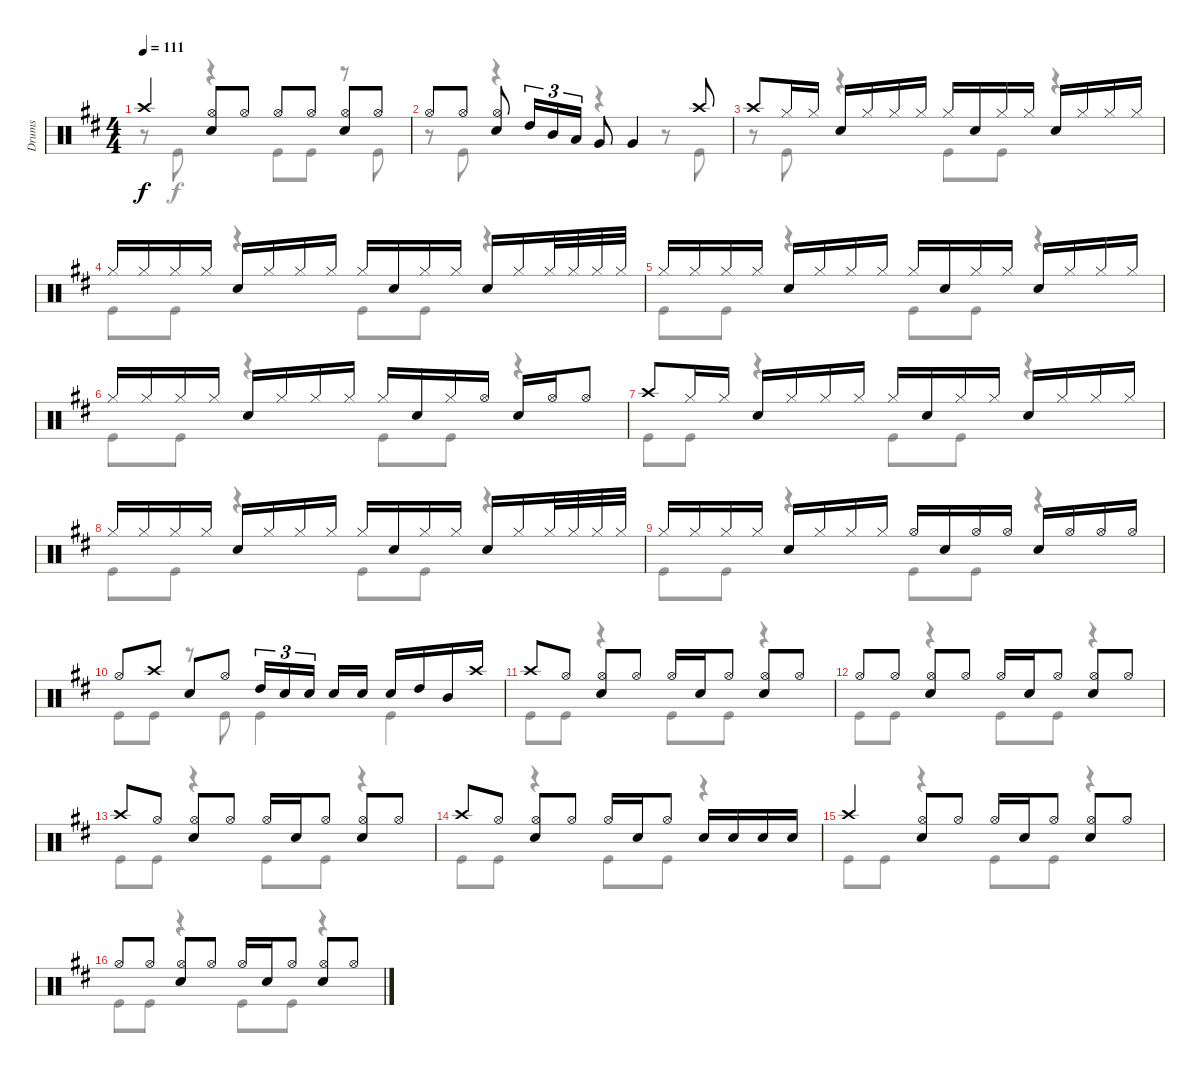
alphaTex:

\track ("Drums" "Drums") {instrument percussion}
\staff {score}
\articulation defaults
\voice
\ts (4 4)
\tempo 111
\clef neutral
\ks d "Crash high (hit)"{t}.4{dy f beam Up}
("Snare (hit) 2" "Hi-Hat (open)").8{beam Up} "Hi-Hat (open)".8{beam Up} "Hi-Hat (open)".8{beam Up} "Hi-Hat (open)".8{beam Up} ("Snare (hit) 2" "Hi-Hat (open)").8{beam Up} "Hi-Hat (open)".8{beam Up} |
"Hi-Hat (open)".8{beam Up} "Hi-Hat (open)".8{beam Up} ("Hi-Hat (open)" "Snare (hit) 2").8{beam Up} "High Tom (hit)".16{tu (3 2) beam Up} "Mid Tom (hit)".16{tu (3 2) beam Up} "Low Tom (hit)".16{tu (3 2) beam Up} "Very Low Tom (hit)".8{beam Up} "Very Low Tom (hit)".4{beam Up} "Crash high (hit)".8{beam Up} |
"Crash high (hit)".8{beam Up} "Hi-Hat (closed)".16{beam Up} "Hi-Hat (closed)".16{beam Up} "Snare (hit) 2".16{beam Up} "Hi-Hat (closed)".16{beam Up} "Hi-Hat (closed)".16{beam Up} "Hi-Hat (closed)".16{beam Up} "Hi-Hat (closed)".16{beam Up} "Snare (hit) 2".16{beam Up} "Hi-Hat (closed)".16{beam Up} "Hi-Hat (closed)".16{beam Up} "Snare (hit) 2".16{beam Up} "Hi-Hat (closed)".16{beam Up} "Hi-Hat (closed)".16{beam Up} "Hi-Hat (closed)".16{beam Up} |
"Hi-Hat (closed)".16{beam Up} "Hi-Hat (closed)".16{beam Up} "Hi-Hat (closed)".16{beam Up} "Hi-Hat (closed)".16{beam Up} "Snare (hit) 2".16{beam Up} "Hi-Hat (closed)".16{beam Up} "Hi-Hat (closed)".16{beam Up} "Hi-Hat (closed)".16{beam Up} "Hi-Hat (closed)".16{beam Up} "Snare (hit) 2".16{beam Up} "Hi-Hat (closed)".16{beam Up} "Hi-Hat (closed)".16{beam Up} "Snare (hit) 2".16{beam Up} "Hi-Hat (closed)".16{beam Up} "Hi-Hat (closed)".32{beam Up} "Hi-Hat (closed)".32{beam Up} "Hi-Hat (closed)".32{beam Up} "Hi-Hat (closed)".32{beam Up} |
"Hi-Hat (closed)".16{beam Up} "Hi-Hat (closed)".16{beam Up} "Hi-Hat (closed)".16{beam Up} "Hi-Hat (closed)".16{beam Up} "Snare (hit) 2".16{beam Up} "Hi-Hat (closed)".16{beam Up} "Hi-Hat (closed)".16{beam Up} "Hi-Hat (closed)".16{beam Up} "Hi-Hat (closed)".16{beam Up} "Snare (hit) 2".16{beam Up} "Hi-Hat (closed)".16{beam Up} "Hi-Hat (closed)".16{beam Up} "Snare (hit) 2".16{beam Up} "Hi-Hat (closed)".16{beam Up} "Hi-Hat (closed)".16{beam Up} "Hi-Hat (closed)".16{beam Up} |
"Hi-Hat (closed)".16{beam Up} "Hi-Hat (closed)".16{beam Up} "Hi-Hat (closed)".16{beam Up} "Hi-Hat (closed)".16{beam Up} "Snare (hit) 2".16{beam Up} "Hi-Hat (closed)".16{beam Up} "Hi-Hat (closed)".16{beam Up} "Hi-Hat (closed)".16{beam Up} "Hi-Hat (closed)".16{beam Up} "Snare (hit) 2".16{beam Up} "Hi-Hat (closed)".16{beam Up} "Hi-Hat (open)".16{beam Up} "Snare (hit) 2".16{beam Up} "Hi-Hat (open)".16{beam Up} "Hi-Hat (open)".8{beam Up} |
"Crash high (hit)".8{beam Up} "Hi-Hat (closed)".16{beam Up} "Hi-Hat (closed)".16{beam Up} "Snare (hit) 2".16{beam Up} "Hi-Hat (closed)".16{beam Up} "Hi-Hat (closed)".16{beam Up} "Hi-Hat (closed)".16{beam Up} "Hi-Hat (closed)".16{beam Up} "Snare (hit) 2".16{beam Up} "Hi-Hat (closed)".16{beam Up} "Hi-Hat (closed)".16{beam Up} "Snare (hit) 2".16{beam Up} "Hi-Hat (closed)".16{beam Up} "Hi-Hat (closed)".16{beam Up} "Hi-Hat (closed)".16{beam Up} |
"Hi-Hat (closed)".16{beam Up} "Hi-Hat (closed)".16{beam Up} "Hi-Hat (closed)".16{beam Up} "Hi-Hat (closed)".16{beam Up} "Snare (hit) 2".16{beam Up} "Hi-Hat (closed)".16{beam Up} "Hi-Hat (closed)".16{beam Up} "Hi-Hat (closed)".16{beam Up} "Hi-Hat (closed)".16{beam Up} "Snare (hit) 2".16{beam Up} "Hi-Hat (closed)".16{beam Up} "Hi-Hat (closed)".16{beam Up} "Snare (hit) 2".16{beam Up} "Hi-Hat (closed)".16{beam Up} "Hi-Hat (closed)".32{beam Up} "Hi-Hat (closed)".32{beam Up} "Hi-Hat (closed)".32{beam Up} "Hi-Hat (closed)".32{beam Up} |
"Hi-Hat (closed)".16{beam Up} "Hi-Hat (closed)".16{beam Up} "Hi-Hat (closed)".16{beam Up} "Hi-Hat (closed)".16{beam Up} "Snare (hit) 2".16{beam Up} "Hi-Hat (closed)".16{beam Up} "Hi-Hat (closed)".16{beam Up} "Hi-Hat (closed)".16{beam Up} "Hi-Hat (open)".16{beam Up} "Snare (hit) 2".16{beam Up} "Hi-Hat (open)".16{beam Up} "Hi-Hat (open)".16{beam Up} "Snare (hit) 2".16{beam Up} "Hi-Hat (open)".16{beam Up} "Hi-Hat (open)".16{beam Up} "Hi-Hat (open)".16{beam Up} |
"Hi-Hat (open)".8{beam Up} "Crash high (hit)".8{beam Up} "Snare (hit) 2".8{beam Up} "Hi-Hat (open)".8{beam Up} "High Tom (hit)".16{tu (3 2) beam Up} "Snare (hit) 2".16{tu (3 2) beam Up} "Snare (hit) 2".16{tu (3 2) beam Up beam splitsecondary} "Snare (hit) 2".16{beam Up} "Snare (hit) 2".16{beam Up} "Snare (hit) 2".16{beam Up} "High Tom (hit)".16{beam Up} "Mid Tom (hit)".16{beam Up} "Crash high (hit)".16{beam Up} |
"Crash high (hit)".8{beam Up} "Hi-Hat (open)".8{beam Up} ("Snare (hit) 2" "Hi-Hat (open)").8{beam Up} "Hi-Hat (open)".8{beam Up} "Hi-Hat (open)".16{beam Up} "Snare (hit) 2".16{beam Up} "Hi-Hat (open)".8{beam Up} ("Hi-Hat (open)" "Snare (hit) 2").8{beam Up} "Hi-Hat (open)".8{beam Up} |
"Hi-Hat (open)".8{beam Up} "Hi-Hat (open)".8{beam Up} ("Snare (hit) 2" "Hi-Hat (open)").8{beam Up} "Hi-Hat (open)".8{beam Up} "Hi-Hat (open)".16{beam Up} "Snare (hit) 2".16{beam Up} "Hi-Hat (open)".8{beam Up} ("Hi-Hat (open)" "Snare (hit) 2").8{beam Up} "Hi-Hat (open)".8{beam Up} |
"Crash high (hit)".8{beam Up} "Hi-Hat (open)".8{beam Up} ("Snare (hit) 2" "Hi-Hat (open)").8{beam Up} "Hi-Hat (open)".8{beam Up} "Hi-Hat (open)".16{beam Up} "Snare (hit) 2".16{beam Up} "Hi-Hat (open)".8{beam Up} ("Hi-Hat (open)" "Snare (hit) 2").8{beam Up} "Hi-Hat (open)".8{beam Up} |
"Crash high (hit)".8{beam Up} "Hi-Hat (open)".8{beam Up} ("Snare (hit) 2" "Hi-Hat (open)").8{beam Up} "Hi-Hat (open)".8{beam Up} "Hi-Hat (open)".16{beam Up} "Snare (hit) 2".16{beam Up} "Hi-Hat (open)".8{beam Up} "Snare (hit) 2".16{beam Up} "Snare (hit) 2".16{beam Up} "Snare (hit) 2".16{beam Up} "Snare (hit) 2".16{beam Up} |
"Crash high (hit)".4{beam Up} ("Snare (hit) 2" "Hi-Hat (open)").8{beam Up} "Hi-Hat (open)".8{beam Up} "Hi-Hat (open)".16{beam Up} "Snare (hit) 2".16{beam Up} "Hi-Hat (open)".8{beam Up} ("Hi-Hat (open)" "Snare (hit) 2").8{beam Up} "Hi-Hat (open)".8{beam Up} |
"Hi-Hat (open)".8{beam Up} "Hi-Hat (open)".8{beam Up} ("Snare (hit) 2" "Hi-Hat (open)").8{beam Up} "Hi-Hat (open)".8{beam Up} "Hi-Hat (open)".16{beam Up} "Snare (hit) 2".16{beam Up} "Hi-Hat (open)".8{beam Up} ("Hi-Hat (open)" "Snare (hit) 2").8{beam Up} "Hi-Hat (open)".8{beam Up}
\voice
\clef neutral
\ottava regular
\simile none
\ks d
r.8{dy f} "Kick (hit)".8 r.4 "Kick (hit)".8 "Kick (hit)".8 r.8 "Kick (hit)".8 |
r.8 "Kick (hit)".8 r.4 r.4 r.8 "Kick (hit)".8 |
r.8 "Kick (hit)".8 r.4 "Kick (hit)".8 "Kick (hit)".8 r.4 |
"Kick (hit)".8 "Kick (hit)".8 r.4 "Kick (hit)".8 "Kick (hit)".8 r.4 |
"Kick (hit)".8 "Kick (hit)".8 r.4 "Kick (hit)".8 "Kick (hit)".8 r.4 |
"Kick (hit)".8 "Kick (hit)".8 r.4 "Kick (hit)".8 "Kick (hit)".8 r.4 |
"Kick (hit)".8 "Kick (hit)".8 r.4 "Kick (hit)".8 "Kick (hit)".8 r.4 |
"Kick (hit)".8 "Kick (hit)".8 r.4 "Kick (hit)".8 "Kick (hit)".8 r.4 |
"Kick (hit)".8 "Kick (hit)".8 r.4 "Kick (hit)".8 "Kick (hit)".8 r.4 |
"Kick (hit)".8 "Kick (hit)".8 r.8 "Kick (hit)".8 "Kick (hit)".4 "Kick (hit)".4 |
"Kick (hit)".8 "Kick (hit)".8 r.4 "Kick (hit)".8 "Kick (hit)".8 r.4 |
"Kick (hit)".8 "Kick (hit)".8 r.4 "Kick (hit)".8 "Kick (hit)".8 r.4 |
"Kick (hit)".8 "Kick (hit)".8 r.4 "Kick (hit)".8 "Kick (hit)".8 r.4 |
"Kick (hit)".8 "Kick (hit)".8 r.4 "Kick (hit)".8 "Kick (hit)".8 r.4 |
"Kick (hit)".8 "Kick (hit)".8 r.4 "Kick (hit)".8 "Kick (hit)".8 r.4 |
"Kick (hit)".8 "Kick (hit)".8 r.4 "Kick (hit)".8 "Kick (hit)".8 r.4
